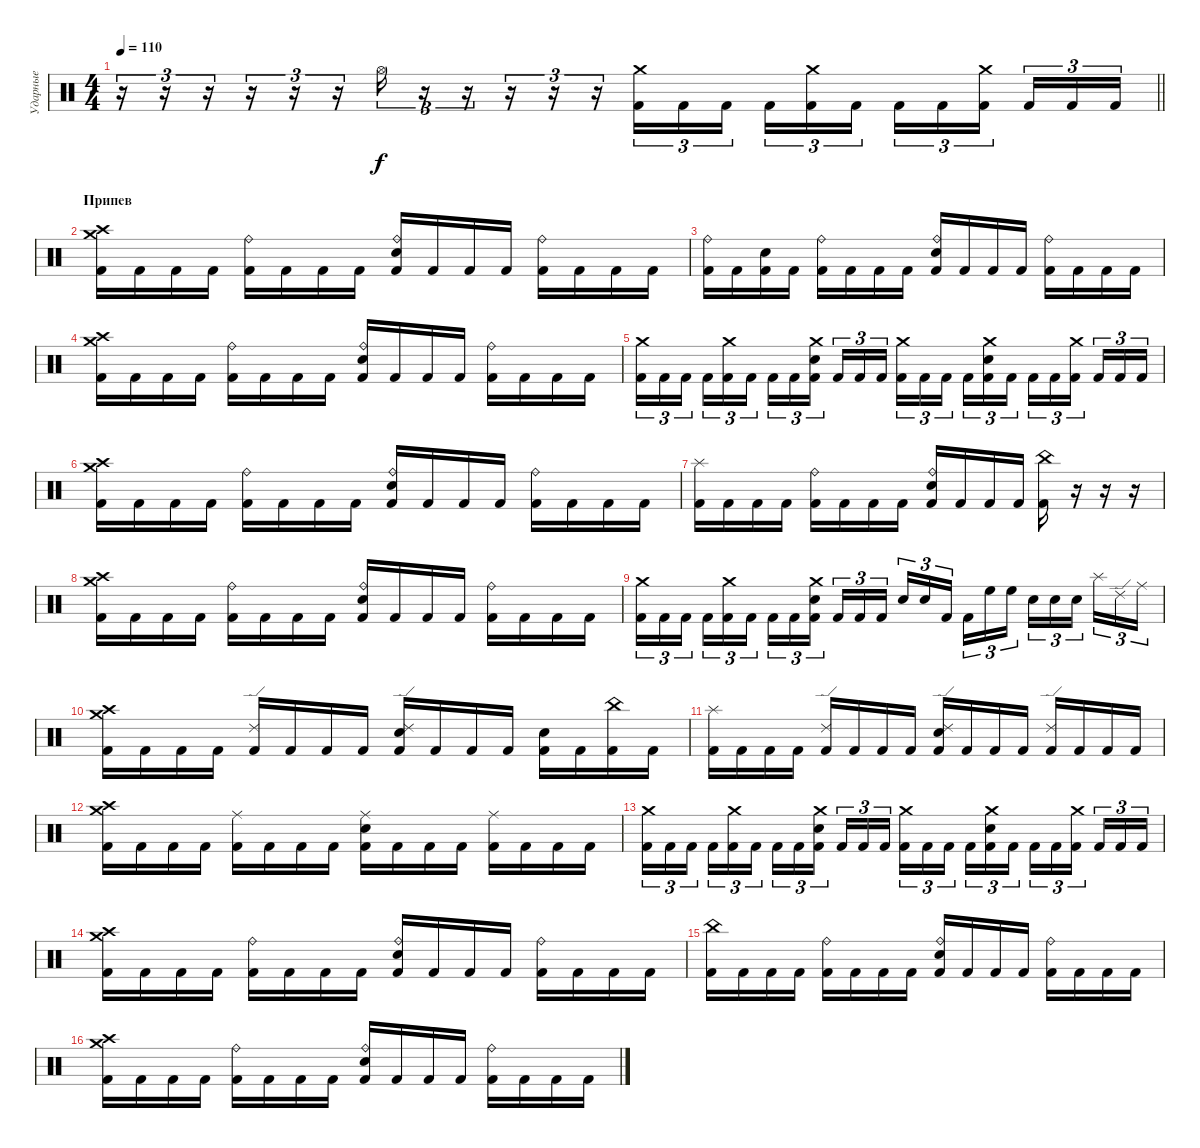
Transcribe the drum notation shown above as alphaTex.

\track ("Ударные" "Ударные") {instrument percussion}
\staff {score}
\articulation defaults
\ts (4 4)
\tempo 110
\clef neutral
\barLineRight lightlight
\ks c
r.16{tu (3 2) dy f} r.16{tu (3 2)} r.16{tu (3 2)} r.16{tu (3 2)} r.16{tu (3 2)} r.16{tu (3 2)} "Hi-Hat (open)".16{tu (3 2)} r.16{tu (3 2)} r.16{tu (3 2)} r.16{tu (3 2)} r.16{tu (3 2)} r.16{tu (3 2)} ("Crash medium (hit)" "Kick (hit) 2").16{tu (3 2)} "Kick (hit) 2".16{tu (3 2)} "Kick (hit) 2".16{tu (3 2) beam splitsecondary} "Kick (hit) 2".16{tu (3 2)} ("Crash medium (hit)" "Kick (hit) 2").16{tu (3 2)} "Kick (hit) 2".16{tu (3 2)} "Kick (hit) 2".16{tu (3 2)} "Kick (hit) 2".16{tu (3 2)} ("Crash medium (hit)" "Kick (hit) 2").16{tu (3 2) beam splitsecondary} "Kick (hit) 2".16{tu (3 2)} "Kick (hit) 2".16{tu (3 2)} "Kick (hit) 2".16{tu (3 2)} |
\section ("" "Припев")
("Crash high (hit)" "Crash medium (hit)" "Kick (hit) 2").16 "Kick (hit) 2".16 "Kick (hit) 2".16 "Kick (hit) 2".16 ("Ride (bell)" "Kick (hit) 2").16 "Kick (hit) 2".16 "Kick (hit) 2".16 "Kick (hit) 2".16 ("Ride (bell)" "Electric Snare (hit)" "Kick (hit) 2").16 "Kick (hit) 2".16 "Kick (hit) 2".16 "Kick (hit) 2".16 ("Ride (bell)" "Kick (hit) 2").16 "Kick (hit) 2".16 "Kick (hit) 2".16 "Kick (hit) 2".16 |
("Ride (bell)" "Kick (hit) 2").16 "Kick (hit) 2".16 ("Electric Snare (hit)" "Kick (hit) 2").16 "Kick (hit) 2".16 ("Ride (bell)" "Kick (hit) 2").16 "Kick (hit) 2".16 "Kick (hit) 2".16 "Kick (hit) 2".16 ("Ride (bell)" "Electric Snare (hit)" "Kick (hit) 2").16 "Kick (hit) 2".16 "Kick (hit) 2".16 "Kick (hit) 2".16 ("Ride (bell)" "Kick (hit) 2").16 "Kick (hit) 2".16 "Kick (hit) 2".16 "Kick (hit) 2".16 |
("Crash high (hit)" "Crash medium (hit)" "Kick (hit) 2").16 "Kick (hit) 2".16 "Kick (hit) 2".16 "Kick (hit) 2".16 ("Ride (bell)" "Kick (hit) 2").16 "Kick (hit) 2".16 "Kick (hit) 2".16 "Kick (hit) 2".16 ("Ride (bell)" "Electric Snare (hit)" "Kick (hit) 2").16 "Kick (hit) 2".16 "Kick (hit) 2".16 "Kick (hit) 2".16 ("Ride (bell)" "Kick (hit) 2").16 "Kick (hit) 2".16 "Kick (hit) 2".16 "Kick (hit) 2".16 |
("Crash medium (hit)" "Kick (hit) 2").16{tu (3 2)} "Kick (hit) 2".16{tu (3 2)} "Kick (hit) 2".16{tu (3 2) beam splitsecondary} "Kick (hit) 2".16{tu (3 2)} ("Crash medium (hit)" "Kick (hit) 2").16{tu (3 2)} "Kick (hit) 2".16{tu (3 2)} "Kick (hit) 2".16{tu (3 2)} "Kick (hit) 2".16{tu (3 2)} ("Crash medium (hit)" "Electric Snare (hit)" "Kick (hit) 2").16{tu (3 2) beam splitsecondary} "Kick (hit) 2".16{tu (3 2)} "Kick (hit) 2".16{tu (3 2)} "Kick (hit) 2".16{tu (3 2)} ("Crash medium (hit)" "Kick (hit) 2").16{tu (3 2)} "Kick (hit) 2".16{tu (3 2)} "Kick (hit) 2".16{tu (3 2) beam splitsecondary} "Kick (hit) 2".16{tu (3 2)} ("Crash medium (hit)" "Electric Snare (hit)" "Kick (hit) 2").16{tu (3 2)} "Kick (hit) 2".16{tu (3 2)} "Kick (hit) 2".16{tu (3 2)} "Kick (hit) 2".16{tu (3 2)} ("Crash medium (hit)" "Kick (hit) 2").16{tu (3 2) beam splitsecondary} "Kick (hit) 2".16{tu (3 2)} "Kick (hit) 2".16{tu (3 2)} "Kick (hit) 2".16{tu (3 2)} |
("Crash high (hit)" "Crash medium (hit)" "Kick (hit) 2").16 "Kick (hit) 2".16 "Kick (hit) 2".16 "Kick (hit) 2".16 ("Ride (bell)" "Kick (hit) 2").16 "Kick (hit) 2".16 "Kick (hit) 2".16 "Kick (hit) 2".16 ("Ride (bell)" "Electric Snare (hit)" "Kick (hit) 2").16 "Kick (hit) 2".16 "Kick (hit) 2".16 "Kick (hit) 2".16 ("Ride (bell)" "Kick (hit) 2").16 "Kick (hit) 2".16 "Kick (hit) 2".16 "Kick (hit) 2".16 |
("Splash (hit)" "Kick (hit) 2").16 "Kick (hit) 2".16 "Kick (hit) 2".16 "Kick (hit) 2".16 ("Ride (bell)" "Kick (hit) 2").16 "Kick (hit) 2".16 "Kick (hit) 2".16 "Kick (hit) 2".16 ("Ride (bell)" "Electric Snare (hit)" "Kick (hit) 2").16 "Kick (hit) 2".16 "Kick (hit) 2".16 "Kick (hit) 2".16 ("China (hit)" "Kick (hit) 2").16 r.16 r.16 r.16 |
("Crash high (hit)" "Crash medium (hit)" "Kick (hit) 2").16 "Kick (hit) 2".16 "Kick (hit) 2".16 "Kick (hit) 2".16 ("Ride (bell)" "Kick (hit) 2").16 "Kick (hit) 2".16 "Kick (hit) 2".16 "Kick (hit) 2".16 ("Ride (bell)" "Electric Snare (hit)" "Kick (hit) 2").16 "Kick (hit) 2".16 "Kick (hit) 2".16 "Kick (hit) 2".16 ("Ride (bell)" "Kick (hit) 2").16 "Kick (hit) 2".16 "Kick (hit) 2".16 "Kick (hit) 2".16 |
("Crash medium (hit)" "Kick (hit) 2").16{tu (3 2)} "Kick (hit) 2".16{tu (3 2)} "Kick (hit) 2".16{tu (3 2) beam splitsecondary} "Kick (hit) 2".16{tu (3 2)} ("Crash medium (hit)" "Kick (hit) 2").16{tu (3 2)} "Kick (hit) 2".16{tu (3 2)} "Kick (hit) 2".16{tu (3 2)} "Kick (hit) 2".16{tu (3 2)} ("Crash medium (hit)" "Electric Snare (hit)" "Kick (hit) 2").16{tu (3 2) beam splitsecondary} "Kick (hit) 2".16{tu (3 2)} "Kick (hit) 2".16{tu (3 2)} "Kick (hit) 2".16{tu (3 2)} "Electric Snare (hit)".16{tu (3 2)} "Electric Snare (hit)".16{tu (3 2)} "Kick (hit) 2".16{tu (3 2) beam splitsecondary} "Kick (hit) 2".16{tu (3 2)} "High Floor Tom (hit)".16{tu (3 2)} "High Floor Tom (hit)".16{tu (3 2)} "Electric Snare (hit)".16{tu (3 2)} "Electric Snare (hit)".16{tu (3 2)} "Electric Snare (hit)".16{tu (3 2) beam splitsecondary} "Splash (hit)".16{tu (3 2)} "Ride (edge) 2".16{tu (3 2)} "Ride (middle)".16{tu (3 2)} |
("Crash high (hit)" "Crash medium (hit)" "Kick (hit) 2").16 "Kick (hit) 2".16 "Kick (hit) 2".16 "Kick (hit) 2".16 ("Ride (edge) 2" "Kick (hit) 2").16 "Kick (hit) 2".16 "Kick (hit) 2".16 "Kick (hit) 2".16 ("Ride (edge) 2" "Electric Snare (hit)" "Kick (hit) 2").16 "Kick (hit) 2".16 "Kick (hit) 2".16 "Kick (hit) 2".16 ("Electric Snare (hit)" "Kick (hit) 2").16 "Kick (hit) 2".16 ("China (hit)" "Kick (hit) 2").16 "Kick (hit) 2".16 |
("Splash (hit)" "Kick (hit) 2").16 "Kick (hit) 2".16 "Kick (hit) 2".16 "Kick (hit) 2".16 ("Ride (edge) 2" "Kick (hit) 2").16 "Kick (hit) 2".16 "Kick (hit) 2".16 "Kick (hit) 2".16 ("Ride (edge) 2" "Electric Snare (hit)" "Kick (hit) 2").16 "Kick (hit) 2".16 "Kick (hit) 2".16 "Kick (hit) 2".16 ("Ride (edge) 2" "Kick (hit) 2").16 "Kick (hit) 2".16 "Kick (hit) 2".16 "Kick (hit) 2".16 |
("Crash high (hit)" "Crash medium (hit)" "Kick (hit) 2").16 "Kick (hit) 2".16 "Kick (hit) 2".16 "Kick (hit) 2".16 ("Ride (middle)" "Kick (hit) 2").16 "Kick (hit) 2".16 "Kick (hit) 2".16 "Kick (hit) 2".16 ("Ride (middle)" "Electric Snare (hit)" "Kick (hit) 2").16 "Kick (hit) 2".16 "Kick (hit) 2".16 "Kick (hit) 2".16 ("Ride (middle)" "Kick (hit) 2").16 "Kick (hit) 2".16 "Kick (hit) 2".16 "Kick (hit) 2".16 |
("Crash medium (hit)" "Kick (hit) 2").16{tu (3 2)} "Kick (hit) 2".16{tu (3 2)} "Kick (hit) 2".16{tu (3 2) beam splitsecondary} "Kick (hit) 2".16{tu (3 2)} ("Crash medium (hit)" "Kick (hit) 2").16{tu (3 2)} "Kick (hit) 2".16{tu (3 2)} "Kick (hit) 2".16{tu (3 2)} "Kick (hit) 2".16{tu (3 2)} ("Crash medium (hit)" "Electric Snare (hit)" "Kick (hit) 2").16{tu (3 2) beam splitsecondary} "Kick (hit) 2".16{tu (3 2)} "Kick (hit) 2".16{tu (3 2)} "Kick (hit) 2".16{tu (3 2)} ("Crash medium (hit)" "Kick (hit) 2").16{tu (3 2)} "Kick (hit) 2".16{tu (3 2)} "Kick (hit) 2".16{tu (3 2) beam splitsecondary} "Kick (hit) 2".16{tu (3 2)} ("Crash medium (hit)" "Electric Snare (hit)" "Kick (hit) 2").16{tu (3 2)} "Kick (hit) 2".16{tu (3 2)} "Kick (hit) 2".16{tu (3 2)} "Kick (hit) 2".16{tu (3 2)} ("Crash medium (hit)" "Kick (hit) 2").16{tu (3 2) beam splitsecondary} "Kick (hit) 2".16{tu (3 2)} "Kick (hit) 2".16{tu (3 2)} "Kick (hit) 2".16{tu (3 2)} |
("Crash high (hit)" "Crash medium (hit)" "Kick (hit) 2").16 "Kick (hit) 2".16 "Kick (hit) 2".16 "Kick (hit) 2".16 ("Ride (bell)" "Kick (hit) 2").16 "Kick (hit) 2".16 "Kick (hit) 2".16 "Kick (hit) 2".16 ("Ride (bell)" "Electric Snare (hit)" "Kick (hit) 2").16 "Kick (hit) 2".16 "Kick (hit) 2".16 "Kick (hit) 2".16 ("Ride (bell)" "Kick (hit) 2").16 "Kick (hit) 2".16 "Kick (hit) 2".16 "Kick (hit) 2".16 |
("China (hit)" "Kick (hit) 2").16 "Kick (hit) 2".16 "Kick (hit) 2".16 "Kick (hit) 2".16 ("Ride (bell)" "Kick (hit) 2").16 "Kick (hit) 2".16 "Kick (hit) 2".16 "Kick (hit) 2".16 ("Ride (bell)" "Electric Snare (hit)" "Kick (hit) 2").16 "Kick (hit) 2".16 "Kick (hit) 2".16 "Kick (hit) 2".16 ("Ride (bell)" "Kick (hit) 2").16 "Kick (hit) 2".16 "Kick (hit) 2".16 "Kick (hit) 2".16 |
("Crash high (hit)" "Crash medium (hit)" "Kick (hit) 2").16 "Kick (hit) 2".16 "Kick (hit) 2".16 "Kick (hit) 2".16 ("Ride (bell)" "Kick (hit) 2").16 "Kick (hit) 2".16 "Kick (hit) 2".16 "Kick (hit) 2".16 ("Ride (bell)" "Electric Snare (hit)" "Kick (hit) 2").16 "Kick (hit) 2".16 "Kick (hit) 2".16 "Kick (hit) 2".16 ("Ride (bell)" "Kick (hit) 2").16 "Kick (hit) 2".16 "Kick (hit) 2".16 "Kick (hit) 2".16
